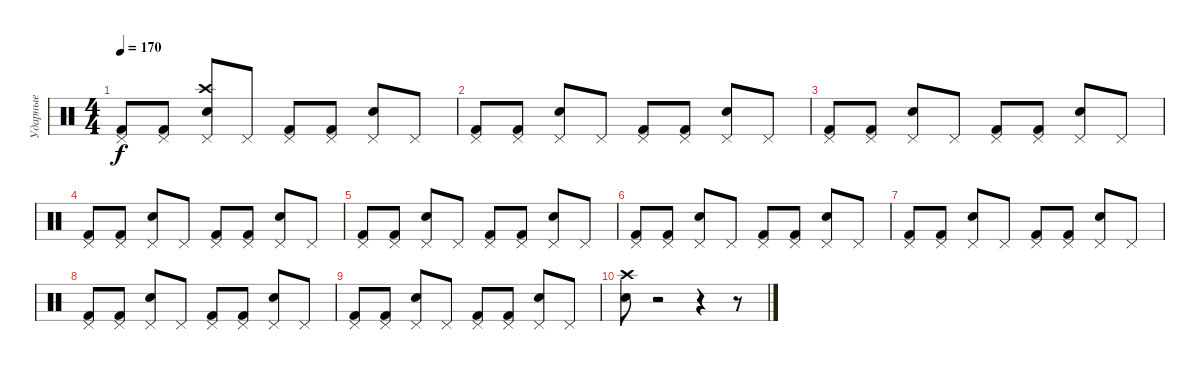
\track ("Ударные" "Ударные") {instrument percussion}
\staff {score}
\articulation defaults
\ts (4 4)
\tempo 170
\clef neutral
\ks c
("Kick (hit) 2" "Pedal Hi-Hat (hit)").8{dy f} ("Kick (hit) 2" "Pedal Hi-Hat (hit)").8 ("Crash high (hit)" "Electric Snare (hit)" "Pedal Hi-Hat (hit)").8 "Pedal Hi-Hat (hit)".8 ("Pedal Hi-Hat (hit)" "Kick (hit) 2").8 ("Kick (hit) 2" "Pedal Hi-Hat (hit)").8 ("Electric Snare (hit)" "Pedal Hi-Hat (hit)").8 "Pedal Hi-Hat (hit)".8 |
("Kick (hit) 2" "Pedal Hi-Hat (hit)").8 ("Pedal Hi-Hat (hit)" "Kick (hit) 2").8 ("Pedal Hi-Hat (hit)" "Electric Snare (hit)").8 "Pedal Hi-Hat (hit)".8 ("Kick (hit) 2" "Pedal Hi-Hat (hit)").8 ("Pedal Hi-Hat (hit)" "Kick (hit) 2").8 ("Electric Snare (hit)" "Pedal Hi-Hat (hit)").8 "Pedal Hi-Hat (hit)".8 |
("Kick (hit) 2" "Pedal Hi-Hat (hit)").8 ("Kick (hit) 2" "Pedal Hi-Hat (hit)").8 ("Pedal Hi-Hat (hit)" "Electric Snare (hit)").8 "Pedal Hi-Hat (hit)".8 ("Kick (hit) 2" "Pedal Hi-Hat (hit)").8 ("Kick (hit) 2" "Pedal Hi-Hat (hit)").8 ("Pedal Hi-Hat (hit)" "Electric Snare (hit)").8 "Pedal Hi-Hat (hit)".8 |
("Pedal Hi-Hat (hit)" "Kick (hit) 2").8 ("Kick (hit) 2" "Pedal Hi-Hat (hit)").8 ("Electric Snare (hit)" "Pedal Hi-Hat (hit)").8 "Pedal Hi-Hat (hit)".8 ("Pedal Hi-Hat (hit)" "Kick (hit) 2").8 ("Pedal Hi-Hat (hit)" "Kick (hit) 2").8 ("Pedal Hi-Hat (hit)" "Electric Snare (hit)").8 "Pedal Hi-Hat (hit)".8 |
("Pedal Hi-Hat (hit)" "Kick (hit) 2").8 ("Pedal Hi-Hat (hit)" "Kick (hit) 2").8 ("Pedal Hi-Hat (hit)" "Electric Snare (hit)").8 "Pedal Hi-Hat (hit)".8 ("Kick (hit) 2" "Pedal Hi-Hat (hit)").8 ("Pedal Hi-Hat (hit)" "Kick (hit) 2").8 ("Electric Snare (hit)" "Pedal Hi-Hat (hit)").8 "Pedal Hi-Hat (hit)".8 |
("Kick (hit) 2" "Pedal Hi-Hat (hit)").8 ("Kick (hit) 2" "Pedal Hi-Hat (hit)").8 ("Pedal Hi-Hat (hit)" "Electric Snare (hit)").8 "Pedal Hi-Hat (hit)".8 ("Kick (hit) 2" "Pedal Hi-Hat (hit)").8 ("Kick (hit) 2" "Pedal Hi-Hat (hit)").8 ("Pedal Hi-Hat (hit)" "Electric Snare (hit)").8 "Pedal Hi-Hat (hit)".8 |
("Pedal Hi-Hat (hit)" "Kick (hit) 2").8 ("Kick (hit) 2" "Pedal Hi-Hat (hit)").8 ("Pedal Hi-Hat (hit)" "Electric Snare (hit)").8 "Pedal Hi-Hat (hit)".8 ("Kick (hit) 2" "Pedal Hi-Hat (hit)").8 ("Pedal Hi-Hat (hit)" "Kick (hit) 2").8 ("Pedal Hi-Hat (hit)" "Electric Snare (hit)").8 "Pedal Hi-Hat (hit)".8 |
("Pedal Hi-Hat (hit)" "Kick (hit) 2").8 ("Kick (hit) 2" "Pedal Hi-Hat (hit)").8 ("Pedal Hi-Hat (hit)" "Electric Snare (hit)").8 "Pedal Hi-Hat (hit)".8 ("Kick (hit) 2" "Pedal Hi-Hat (hit)").8 ("Pedal Hi-Hat (hit)" "Kick (hit) 2").8 ("Pedal Hi-Hat (hit)" "Electric Snare (hit)").8 "Pedal Hi-Hat (hit)".8 |
("Pedal Hi-Hat (hit)" "Kick (hit) 2").8 ("Kick (hit) 2" "Pedal Hi-Hat (hit)").8 ("Pedal Hi-Hat (hit)" "Electric Snare (hit)").8 "Pedal Hi-Hat (hit)".8 ("Kick (hit) 2" "Pedal Hi-Hat (hit)").8 ("Pedal Hi-Hat (hit)" "Kick (hit) 2").8 ("Pedal Hi-Hat (hit)" "Electric Snare (hit)").8 "Pedal Hi-Hat (hit)".8 |
("Electric Snare (hit)" "Crash high (hit)").8 r.2 r.4 r.8
